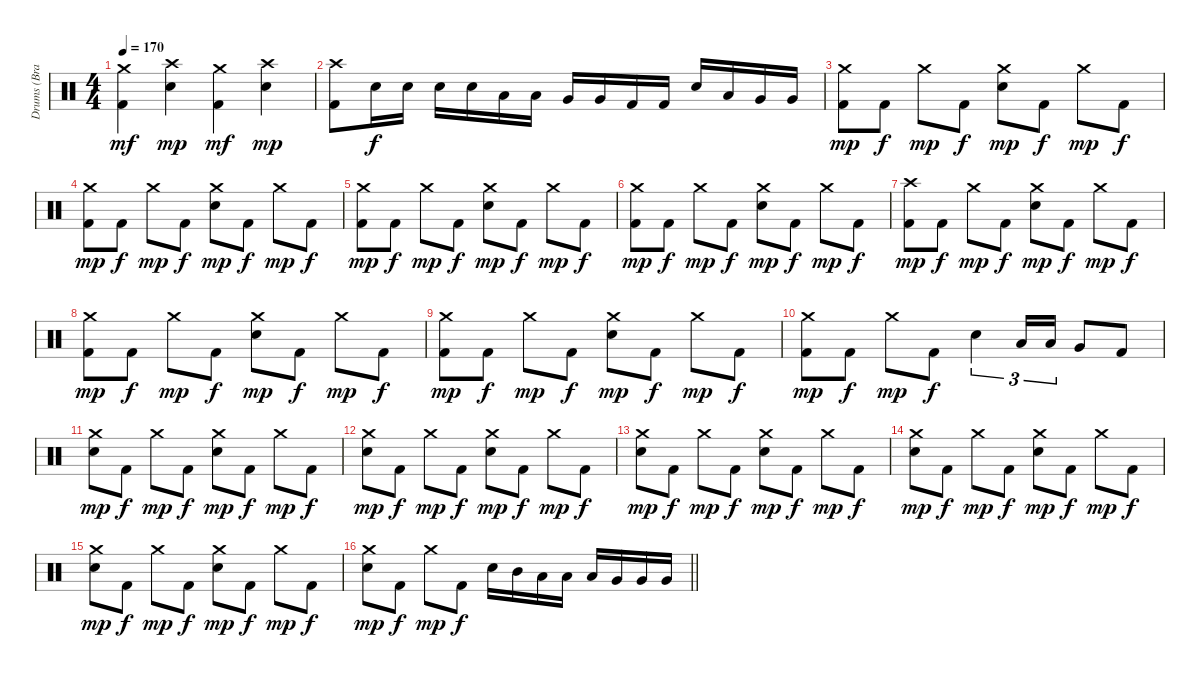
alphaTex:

\track ("Drums (Brandon Saller)" "Drums (Bra") {instrument percussion}
\staff {score}
\articulation defaults
\ts (4 4)
\tempo 170
\clef neutral
\ks c
("Crash medium (hit)" "Kick (hit) 2").4{dy mf} ("Crash high (hit)" "Electric Snare (hit)").4{dy mp} ("Crash medium (hit)" "Kick (hit) 2").4{dy mf} ("Crash high (hit)" "Electric Snare (hit)").4{dy mp} |
("Crash high (hit)" "Kick (hit) 2").8 "Electric Snare (hit)".16{dy f} "Electric Snare (hit)".16 "Electric Snare (hit)".16 "Electric Snare (hit)".16 "Low Tom (hit)".16 "Low Tom (hit)".16 "Very Low Tom (hit)".16 "Very Low Tom (hit)".16 "Kick (hit) 2".16 "Kick (hit) 2".16 "Electric Snare (hit)".16 "Low Tom (hit)".16 "Very Low Tom (hit)".16 "Very Low Tom (hit)".16 |
("Crash medium (hit)" "Kick (hit) 2").8{dy mp} "Kick (hit) 2".8{dy f} "Crash medium (hit)".8{dy mp} "Kick (hit) 2".8{dy f} ("Crash medium (hit)" "Electric Snare (hit)").8{dy mp} "Kick (hit) 2".8{dy f} "Crash medium (hit)".8{dy mp} "Kick (hit) 2".8{dy f} |
("Crash medium (hit)" "Kick (hit) 2").8{dy mp} "Kick (hit) 2".8{dy f} "Crash medium (hit)".8{dy mp} "Kick (hit) 2".8{dy f} ("Crash medium (hit)" "Electric Snare (hit)").8{dy mp} "Kick (hit) 2".8{dy f} "Crash medium (hit)".8{dy mp} "Kick (hit) 2".8{dy f} |
("Crash medium (hit)" "Kick (hit) 2").8{dy mp} "Kick (hit) 2".8{dy f} "Crash medium (hit)".8{dy mp} "Kick (hit) 2".8{dy f} ("Crash medium (hit)" "Electric Snare (hit)").8{dy mp} "Kick (hit) 2".8{dy f} "Crash medium (hit)".8{dy mp} "Kick (hit) 2".8{dy f} |
("Crash medium (hit)" "Kick (hit) 2").8{dy mp} "Kick (hit) 2".8{dy f} "Crash medium (hit)".8{dy mp} "Kick (hit) 2".8{dy f} ("Crash medium (hit)" "Electric Snare (hit)").8{dy mp} "Kick (hit) 2".8{dy f} "Crash medium (hit)".8{dy mp} "Kick (hit) 2".8{dy f} |
("Crash high (hit)" "Kick (hit) 2").8{dy mp} "Kick (hit) 2".8{dy f} "Crash medium (hit)".8{dy mp} "Kick (hit) 2".8{dy f} ("Crash medium (hit)" "Electric Snare (hit)").8{dy mp} "Kick (hit) 2".8{dy f} "Crash medium (hit)".8{dy mp} "Kick (hit) 2".8{dy f} |
("Crash medium (hit)" "Kick (hit) 2").8{dy mp} "Kick (hit) 2".8{dy f} "Crash medium (hit)".8{dy mp} "Kick (hit) 2".8{dy f} ("Crash medium (hit)" "Electric Snare (hit)").8{dy mp} "Kick (hit) 2".8{dy f} "Crash medium (hit)".8{dy mp} "Kick (hit) 2".8{dy f} |
("Crash medium (hit)" "Kick (hit) 2").8{dy mp} "Kick (hit) 2".8{dy f} "Crash medium (hit)".8{dy mp} "Kick (hit) 2".8{dy f} ("Crash medium (hit)" "Electric Snare (hit)").8{dy mp} "Kick (hit) 2".8{dy f} "Crash medium (hit)".8{dy mp} "Kick (hit) 2".8{dy f} |
("Crash medium (hit)" "Kick (hit) 2").8{dy mp} "Kick (hit) 2".8{dy f} "Crash medium (hit)".8{dy mp} "Kick (hit) 2".8{dy f} "Electric Snare (hit)".4{tu (3 2)} "Low Tom (hit)".16{tu (3 2)} "Low Tom (hit)".16{tu (3 2)} "Very Low Tom (hit)".8 "Kick (hit) 2".8 |
("Crash medium (hit)" "Electric Snare (hit)").8{dy mp} "Kick (hit) 2".8{dy f} "Crash medium (hit)".8{dy mp} "Kick (hit) 2".8{dy f} ("Crash medium (hit)" "Electric Snare (hit)").8{dy mp} "Kick (hit) 2".8{dy f} "Crash medium (hit)".8{dy mp} "Kick (hit) 2".8{dy f} |
("Crash medium (hit)" "Electric Snare (hit)").8{dy mp} "Kick (hit) 2".8{dy f} "Crash medium (hit)".8{dy mp} "Kick (hit) 2".8{dy f} ("Crash medium (hit)" "Electric Snare (hit)").8{dy mp} "Kick (hit) 2".8{dy f} "Crash medium (hit)".8{dy mp} "Kick (hit) 2".8{dy f} |
("Crash medium (hit)" "Electric Snare (hit)").8{dy mp} "Kick (hit) 2".8{dy f} "Crash medium (hit)".8{dy mp} "Kick (hit) 2".8{dy f} ("Crash medium (hit)" "Electric Snare (hit)").8{dy mp} "Kick (hit) 2".8{dy f} "Crash medium (hit)".8{dy mp} "Kick (hit) 2".8{dy f} |
("Crash medium (hit)" "Electric Snare (hit)").8{dy mp} "Kick (hit) 2".8{dy f} "Crash medium (hit)".8{dy mp} "Kick (hit) 2".8{dy f} ("Crash medium (hit)" "Electric Snare (hit)").8{dy mp} "Kick (hit) 2".8{dy f} "Crash medium (hit)".8{dy mp} "Kick (hit) 2".8{dy f} |
("Crash medium (hit)" "Electric Snare (hit)").8{dy mp} "Kick (hit) 2".8{dy f} "Crash medium (hit)".8{dy mp} "Kick (hit) 2".8{dy f} ("Crash medium (hit)" "Electric Snare (hit)").8{dy mp} "Kick (hit) 2".8{dy f} "Crash medium (hit)".8{dy mp} "Kick (hit) 2".8{dy f} |
\barLineRight lightlight
("Crash medium (hit)" "Electric Snare (hit)").8{dy mp} "Kick (hit) 2".8{dy f} "Crash medium (hit)".8{dy mp} "Kick (hit) 2".8{dy f} "Electric Snare (hit)".16 "Mid Tom (hit)".16 "Low Tom (hit)".16 "Low Tom (hit)".16 "Low Tom (hit)".16 "Very Low Tom (hit)".16 "Very Low Tom (hit)".16 "Very Low Tom (hit)".16
